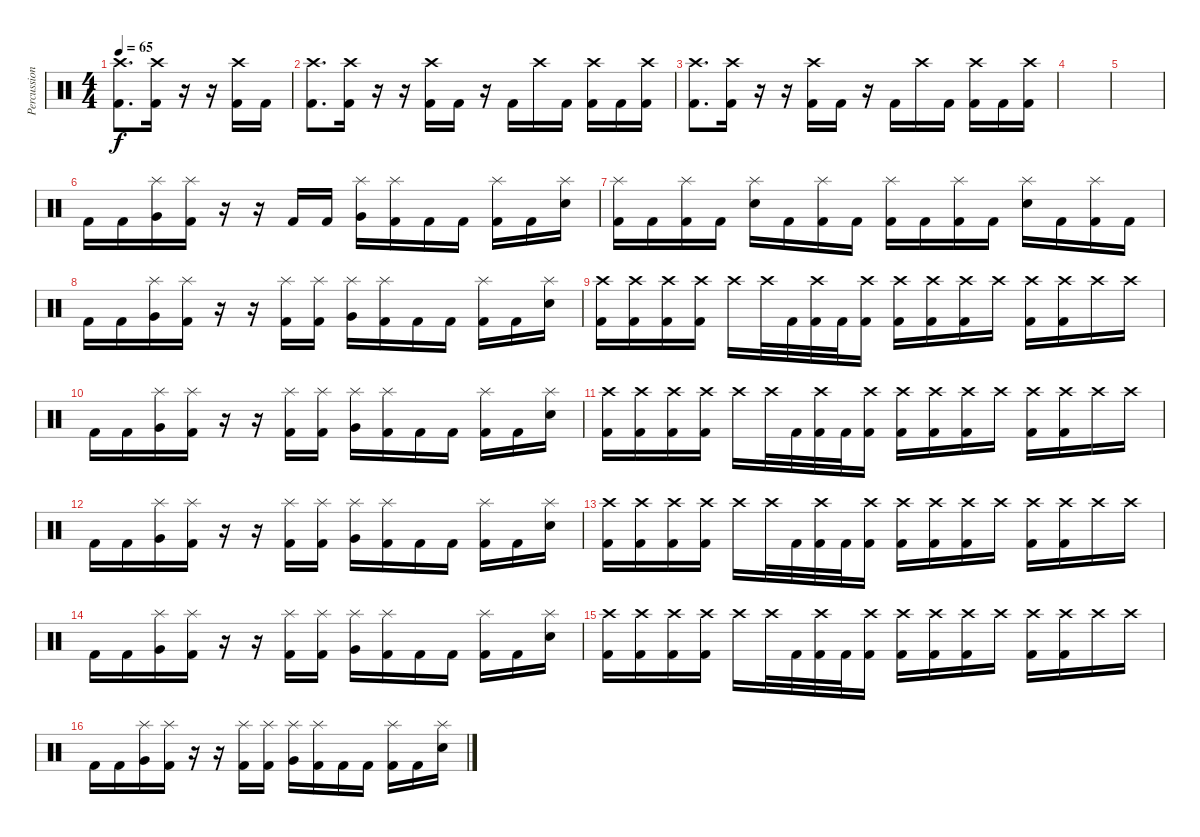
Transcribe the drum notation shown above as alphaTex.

\track ("Percussion" "Percussion") {instrument percussion}
\staff {score}
\articulation defaults
\ts (4 4)
\tempo 65
\clef neutral
\ks c
("Crash high (hit)" "Kick (hit) 2").8{d dy f} ("Crash high (hit)" "Kick (hit) 2").16 r.16 r.16 ("Crash high (hit)" "Kick (hit) 2").16 "Kick (hit) 2".16 |
("Crash high (hit)" "Kick (hit) 2").8{d} ("Crash high (hit)" "Kick (hit) 2").16 r.16 r.16 ("Crash high (hit)" "Kick (hit) 2").16 "Kick (hit) 2".16 r.16 "Kick (hit) 2".16 "Crash high (hit)".16 "Kick (hit) 2".16 ("Crash high (hit)" "Kick (hit) 2").16 "Kick (hit) 2".16 ("Crash high (hit)" "Kick (hit) 2").16 |
("Crash high (hit)" "Kick (hit) 2").8{d} ("Crash high (hit)" "Kick (hit) 2").16 r.16 r.16 ("Crash high (hit)" "Kick (hit) 2").16 "Kick (hit) 2".16 r.16 "Kick (hit) 2".16 "Crash high (hit)".16 "Kick (hit) 2".16 ("Crash high (hit)" "Kick (hit) 2").16 "Kick (hit) 2".16 ("Crash high (hit)" "Kick (hit) 2").16 |
|
|
"Kick (hit) 2".16 "Kick (hit) 2".16 ("Splash (hit)" "Very Low Tom (hit)").16 ("Splash (hit)" "Kick (hit) 2").16 r.16 r.16 "Kick (hit) 2".16 "Kick (hit) 2".16 ("Splash (hit)" "Very Low Tom (hit)").16 ("Splash (hit)" "Kick (hit) 2").16 "Kick (hit) 2".16 "Kick (hit) 2".16 ("Splash (hit)" "Kick (hit) 2").16 "Kick (hit) 2".16 ("Splash (hit)" "Snare (hit) 2").16 |
("Splash (hit)" "Kick (hit) 2").16 "Kick (hit) 2".16 ("Splash (hit)" "Kick (hit) 2").16 "Kick (hit) 2".16 ("Splash (hit)" "Snare (hit) 2").16 "Kick (hit) 2".16 ("Splash (hit)" "Kick (hit) 2").16 "Kick (hit) 2".16 ("Splash (hit)" "Kick (hit) 2").16 "Kick (hit) 2".16 ("Splash (hit)" "Kick (hit) 2").16 "Kick (hit) 2".16 ("Splash (hit)" "Snare (hit) 2").16 "Kick (hit) 2".16 ("Splash (hit)" "Kick (hit) 2").16 "Kick (hit) 2".16 |
"Kick (hit) 2".16 "Kick (hit) 2".16 ("Splash (hit)" "Very Low Tom (hit)").16 ("Splash (hit)" "Kick (hit) 2").16 r.16 r.16 ("Splash (hit)" "Kick (hit) 2").16 ("Splash (hit)" "Kick (hit) 2").16 ("Splash (hit)" "Very Low Tom (hit)").16 ("Splash (hit)" "Kick (hit) 2").16 "Kick (hit) 2".16 "Kick (hit) 2".16 ("Splash (hit)" "Kick (hit) 2").16 "Kick (hit) 2".16 ("Splash (hit)" "Snare (hit) 2").16 |
("Crash high (hit)" "Kick (hit) 2").16 ("Crash high (hit)" "Kick (hit) 2").16 ("Crash high (hit)" "Kick (hit) 2").16 ("Crash high (hit)" "Kick (hit) 2").16 "Crash high (hit)".16 "Crash high (hit)".32 "Kick (hit) 2".32 ("Crash high (hit)" "Kick (hit) 2").32 "Kick (hit) 2".32 ("Crash high (hit)" "Kick (hit) 2").16 ("Crash high (hit)" "Kick (hit) 2").16 ("Crash high (hit)" "Kick (hit) 2").16 ("Crash high (hit)" "Kick (hit) 2").16 "Crash high (hit)".16 ("Crash high (hit)" "Kick (hit) 2").16 ("Crash high (hit)" "Kick (hit) 2").16 "Crash high (hit)".16 "Crash high (hit)".16 |
"Kick (hit) 2".16 "Kick (hit) 2".16 ("Splash (hit)" "Very Low Tom (hit)").16 ("Splash (hit)" "Kick (hit) 2").16 r.16 r.16 ("Splash (hit)" "Kick (hit) 2").16 ("Splash (hit)" "Kick (hit) 2").16 ("Splash (hit)" "Very Low Tom (hit)").16 ("Splash (hit)" "Kick (hit) 2").16 "Kick (hit) 2".16 "Kick (hit) 2".16 ("Splash (hit)" "Kick (hit) 2").16 "Kick (hit) 2".16 ("Splash (hit)" "Snare (hit) 2").16 |
("Crash high (hit)" "Kick (hit) 2").16 ("Crash high (hit)" "Kick (hit) 2").16 ("Crash high (hit)" "Kick (hit) 2").16 ("Crash high (hit)" "Kick (hit) 2").16 "Crash high (hit)".16 "Crash high (hit)".32 "Kick (hit) 2".32 ("Crash high (hit)" "Kick (hit) 2").32 "Kick (hit) 2".32 ("Crash high (hit)" "Kick (hit) 2").16 ("Crash high (hit)" "Kick (hit) 2").16 ("Crash high (hit)" "Kick (hit) 2").16 ("Crash high (hit)" "Kick (hit) 2").16 "Crash high (hit)".16 ("Crash high (hit)" "Kick (hit) 2").16 ("Crash high (hit)" "Kick (hit) 2").16 "Crash high (hit)".16 "Crash high (hit)".16 |
"Kick (hit) 2".16 "Kick (hit) 2".16 ("Splash (hit)" "Very Low Tom (hit)").16 ("Splash (hit)" "Kick (hit) 2").16 r.16 r.16 ("Splash (hit)" "Kick (hit) 2").16 ("Splash (hit)" "Kick (hit) 2").16 ("Splash (hit)" "Very Low Tom (hit)").16 ("Splash (hit)" "Kick (hit) 2").16 "Kick (hit) 2".16 "Kick (hit) 2".16 ("Splash (hit)" "Kick (hit) 2").16 "Kick (hit) 2".16 ("Splash (hit)" "Snare (hit) 2").16 |
("Crash high (hit)" "Kick (hit) 2").16 ("Crash high (hit)" "Kick (hit) 2").16 ("Crash high (hit)" "Kick (hit) 2").16 ("Crash high (hit)" "Kick (hit) 2").16 "Crash high (hit)".16 "Crash high (hit)".32 "Kick (hit) 2".32 ("Crash high (hit)" "Kick (hit) 2").32 "Kick (hit) 2".32 ("Crash high (hit)" "Kick (hit) 2").16 ("Crash high (hit)" "Kick (hit) 2").16 ("Crash high (hit)" "Kick (hit) 2").16 ("Crash high (hit)" "Kick (hit) 2").16 "Crash high (hit)".16 ("Crash high (hit)" "Kick (hit) 2").16 ("Crash high (hit)" "Kick (hit) 2").16 "Crash high (hit)".16 "Crash high (hit)".16 |
"Kick (hit) 2".16 "Kick (hit) 2".16 ("Splash (hit)" "Very Low Tom (hit)").16 ("Splash (hit)" "Kick (hit) 2").16 r.16 r.16 ("Splash (hit)" "Kick (hit) 2").16 ("Splash (hit)" "Kick (hit) 2").16 ("Splash (hit)" "Very Low Tom (hit)").16 ("Splash (hit)" "Kick (hit) 2").16 "Kick (hit) 2".16 "Kick (hit) 2".16 ("Splash (hit)" "Kick (hit) 2").16 "Kick (hit) 2".16 ("Splash (hit)" "Snare (hit) 2").16 |
("Crash high (hit)" "Kick (hit) 2").16 ("Crash high (hit)" "Kick (hit) 2").16 ("Crash high (hit)" "Kick (hit) 2").16 ("Crash high (hit)" "Kick (hit) 2").16 "Crash high (hit)".16 "Crash high (hit)".32 "Kick (hit) 2".32 ("Crash high (hit)" "Kick (hit) 2").32 "Kick (hit) 2".32 ("Crash high (hit)" "Kick (hit) 2").16 ("Crash high (hit)" "Kick (hit) 2").16 ("Crash high (hit)" "Kick (hit) 2").16 ("Crash high (hit)" "Kick (hit) 2").16 "Crash high (hit)".16 ("Crash high (hit)" "Kick (hit) 2").16 ("Crash high (hit)" "Kick (hit) 2").16 "Crash high (hit)".16 "Crash high (hit)".16 |
"Kick (hit) 2".16 "Kick (hit) 2".16 ("Splash (hit)" "Very Low Tom (hit)").16 ("Splash (hit)" "Kick (hit) 2").16 r.16 r.16 ("Splash (hit)" "Kick (hit) 2").16 ("Splash (hit)" "Kick (hit) 2").16 ("Splash (hit)" "Very Low Tom (hit)").16 ("Splash (hit)" "Kick (hit) 2").16 "Kick (hit) 2".16 "Kick (hit) 2".16 ("Splash (hit)" "Kick (hit) 2").16 "Kick (hit) 2".16 ("Splash (hit)" "Snare (hit) 2").16
